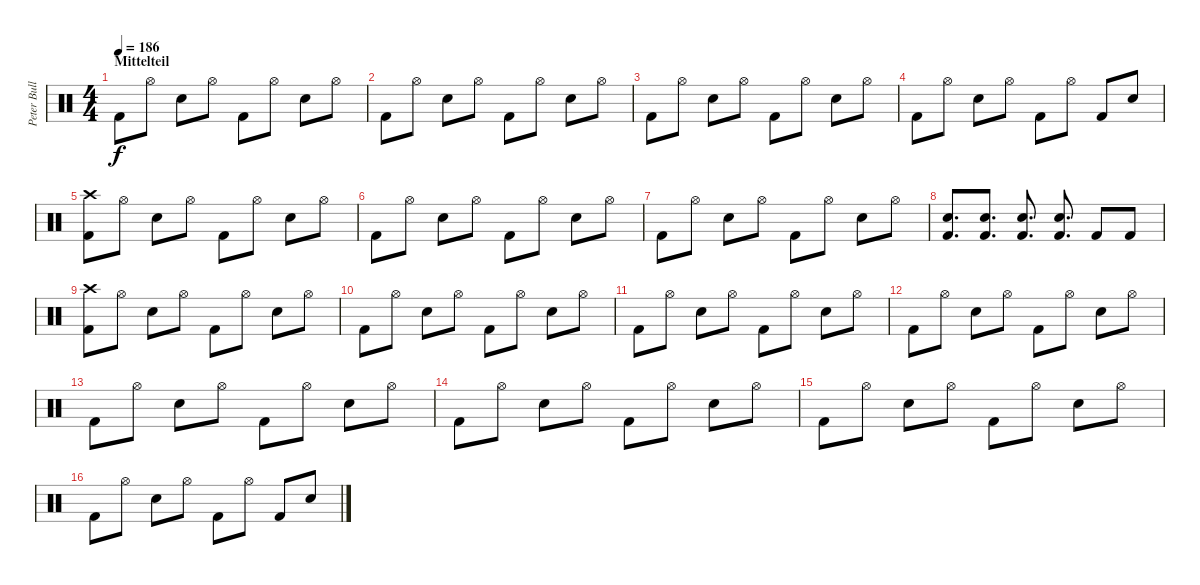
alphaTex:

\track ("Peter Bullrich" "Peter Bull") {instrument percussion}
\staff {score}
\articulation defaults
\ts (4 4)
\section ("" "Mittelteil")
\tempo 186
\clef neutral
\ks c "Kick (hit) 2".8{dy f} "Hi-Hat (open)".8 "Electric Snare (hit)".8 "Hi-Hat (open)".8 "Kick (hit) 2".8 "Hi-Hat (open)".8 "Electric Snare (hit)".8 "Hi-Hat (open)".8
|
"Kick (hit) 2".8 "Hi-Hat (open)".8 "Electric Snare (hit)".8 "Hi-Hat (open)".8 "Kick (hit) 2".8 "Hi-Hat (open)".8 "Electric Snare (hit)".8 "Hi-Hat (open)".8 |
"Kick (hit) 2".8 "Hi-Hat (open)".8 "Electric Snare (hit)".8 "Hi-Hat (open)".8 "Kick (hit) 2".8 "Hi-Hat (open)".8 "Electric Snare (hit)".8 "Hi-Hat (open)".8 |
"Kick (hit) 2".8 "Hi-Hat (open)".8 "Electric Snare (hit)".8 "Hi-Hat (open)".8 "Kick (hit) 2".8 "Hi-Hat (open)".8 "Kick (hit) 2".8 "Electric Snare (hit)".8 |
("Crash high (hit)" "Kick (hit) 2").8 "Hi-Hat (open)".8 "Electric Snare (hit)".8 "Hi-Hat (open)".8 "Kick (hit) 2".8 "Hi-Hat (open)".8 "Electric Snare (hit)".8 "Hi-Hat (open)".8 |
"Kick (hit) 2".8 "Hi-Hat (open)".8 "Electric Snare (hit)".8 "Hi-Hat (open)".8 "Kick (hit) 2".8 "Hi-Hat (open)".8 "Electric Snare (hit)".8 "Hi-Hat (open)".8 |
"Kick (hit) 2".8 "Hi-Hat (open)".8 "Electric Snare (hit)".8 "Hi-Hat (open)".8 "Kick (hit) 2".8 "Hi-Hat (open)".8 "Electric Snare (hit)".8 "Hi-Hat (open)".8 |
("Electric Snare (hit)" "Kick (hit) 2").8{d} ("Electric Snare (hit)" "Kick (hit) 2").8{d} ("Electric Snare (hit)" "Kick (hit) 2").8{d} ("Electric Snare (hit)" "Kick (hit) 2").8{d} "Kick (hit) 2".8 "Kick (hit) 2".8 |
("Crash high (hit)" "Kick (hit) 2").8 "Hi-Hat (open)".8 "Electric Snare (hit)".8 "Hi-Hat (open)".8 "Kick (hit) 2".8 "Hi-Hat (open)".8 "Electric Snare (hit)".8 "Hi-Hat (open)".8 |
"Kick (hit) 2".8 "Hi-Hat (open)".8 "Electric Snare (hit)".8 "Hi-Hat (open)".8 "Kick (hit) 2".8 "Hi-Hat (open)".8 "Electric Snare (hit)".8 "Hi-Hat (open)".8 |
"Kick (hit) 2".8 "Hi-Hat (open)".8 "Electric Snare (hit)".8 "Hi-Hat (open)".8 "Kick (hit) 2".8 "Hi-Hat (open)".8 "Electric Snare (hit)".8 "Hi-Hat (open)".8 |
"Kick (hit) 2".8 "Hi-Hat (open)".8 "Electric Snare (hit)".8 "Hi-Hat (open)".8 "Kick (hit) 2".8 "Hi-Hat (open)".8 "Electric Snare (hit)".8 "Hi-Hat (open)".8 |
"Kick (hit) 2".8 "Hi-Hat (open)".8 "Electric Snare (hit)".8 "Hi-Hat (open)".8 "Kick (hit) 2".8 "Hi-Hat (open)".8 "Electric Snare (hit)".8 "Hi-Hat (open)".8 |
"Kick (hit) 2".8 "Hi-Hat (open)".8 "Electric Snare (hit)".8 "Hi-Hat (open)".8 "Kick (hit) 2".8 "Hi-Hat (open)".8 "Electric Snare (hit)".8 "Hi-Hat (open)".8 |
"Kick (hit) 2".8 "Hi-Hat (open)".8 "Electric Snare (hit)".8 "Hi-Hat (open)".8 "Kick (hit) 2".8 "Hi-Hat (open)".8 "Electric Snare (hit)".8 "Hi-Hat (open)".8 |
"Kick (hit) 2".8 "Hi-Hat (open)".8 "Electric Snare (hit)".8 "Hi-Hat (open)".8 "Kick (hit) 2".8 "Hi-Hat (open)".8 "Kick (hit) 2".8 "Electric Snare (hit)".8
